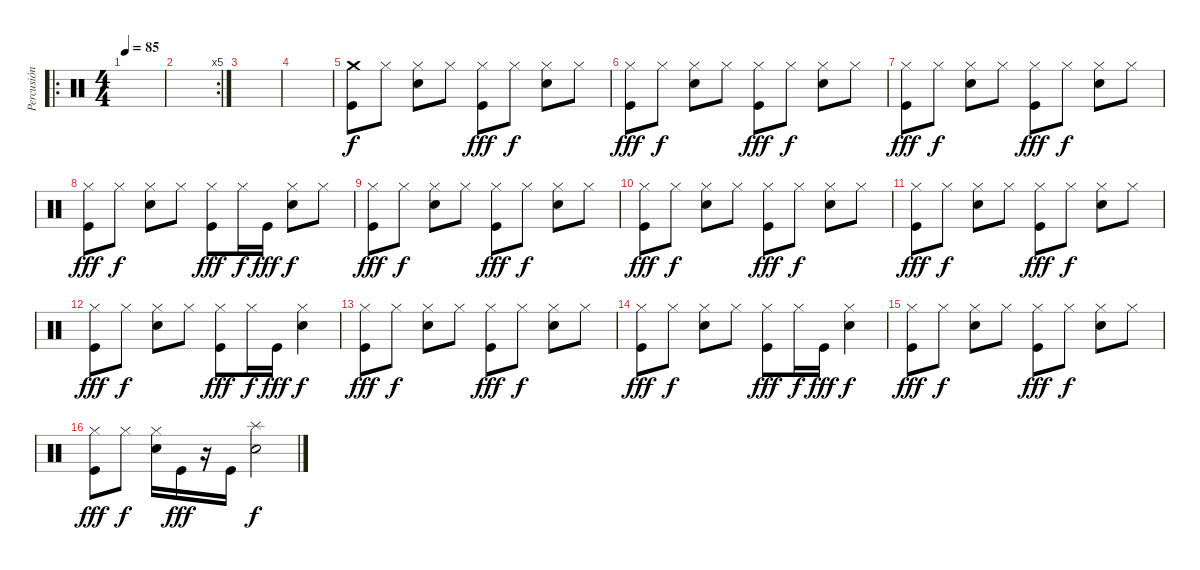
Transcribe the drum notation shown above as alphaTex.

\track ("Percusión" "Percusión") {instrument percussion}
\staff {score}
\articulation defaults
\ro
\ts (4 4)
\tempo 85
\clef neutral
\ks c
|
\rc 5
|
|
|
("Crash medium (hit)" "Kick (hit)").8 "Hi-Hat (closed)".8{dy f} ("Hi-Hat (closed)" "Electric Snare (hit)").8 "Hi-Hat (closed)".8 ("Hi-Hat (closed)" "Kick (hit)").8{dy fff} "Hi-Hat (closed)".8{dy f} ("Hi-Hat (closed)" "Electric Snare (hit)").8 "Hi-Hat (closed)".8 |
("Hi-Hat (closed)" "Kick (hit)").8{dy fff} "Hi-Hat (closed)".8{dy f} ("Hi-Hat (closed)" "Electric Snare (hit)").8 "Hi-Hat (closed)".8 ("Hi-Hat (closed)" "Kick (hit)").8{dy fff} "Hi-Hat (closed)".8{dy f} ("Hi-Hat (closed)" "Electric Snare (hit)").8 "Hi-Hat (closed)".8 |
("Hi-Hat (closed)" "Kick (hit)").8{dy fff} "Hi-Hat (closed)".8{dy f} ("Hi-Hat (closed)" "Electric Snare (hit)").8 "Hi-Hat (closed)".8 ("Hi-Hat (closed)" "Kick (hit)").8{dy fff} "Hi-Hat (closed)".8{dy f} ("Hi-Hat (closed)" "Electric Snare (hit)").8 "Hi-Hat (closed)".8 |
("Hi-Hat (closed)" "Kick (hit)").8{dy fff} "Hi-Hat (closed)".8{dy f} ("Hi-Hat (closed)" "Electric Snare (hit)").8 "Hi-Hat (closed)".8 ("Hi-Hat (closed)" "Kick (hit)").8{dy fff} "Hi-Hat (closed)".16{dy f} "Kick (hit)".16{dy fff} ("Hi-Hat (closed)" "Electric Snare (hit)").8{dy f} "Hi-Hat (closed)".8 |
("Hi-Hat (closed)" "Kick (hit)").8{dy fff} "Hi-Hat (closed)".8{dy f} ("Hi-Hat (closed)" "Electric Snare (hit)").8 "Hi-Hat (closed)".8 ("Hi-Hat (closed)" "Kick (hit)").8{dy fff} "Hi-Hat (closed)".8{dy f} ("Hi-Hat (closed)" "Electric Snare (hit)").8 "Hi-Hat (closed)".8 |
("Hi-Hat (closed)" "Kick (hit)").8{dy fff} "Hi-Hat (closed)".8{dy f} ("Hi-Hat (closed)" "Electric Snare (hit)").8 "Hi-Hat (closed)".8 ("Hi-Hat (closed)" "Kick (hit)").8{dy fff} "Hi-Hat (closed)".8{dy f} ("Hi-Hat (closed)" "Electric Snare (hit)").8 "Hi-Hat (closed)".8 |
("Hi-Hat (closed)" "Kick (hit)").8{dy fff} "Hi-Hat (closed)".8{dy f} ("Hi-Hat (closed)" "Electric Snare (hit)").8 "Hi-Hat (closed)".8 ("Hi-Hat (closed)" "Kick (hit)").8{dy fff} "Hi-Hat (closed)".8{dy f} ("Hi-Hat (closed)" "Electric Snare (hit)").8 "Hi-Hat (closed)".8 |
("Hi-Hat (closed)" "Kick (hit)").8{dy fff} "Hi-Hat (closed)".8{dy f} ("Hi-Hat (closed)" "Electric Snare (hit)").8 "Hi-Hat (closed)".8 ("Hi-Hat (closed)" "Kick (hit)").8{dy fff} "Hi-Hat (closed)".16{dy f} "Kick (hit)".16{dy fff} ("Hi-Hat (closed)" "Electric Snare (hit)").4{dy f} |
("Hi-Hat (closed)" "Kick (hit)").8{dy fff} "Hi-Hat (closed)".8{dy f} ("Hi-Hat (closed)" "Electric Snare (hit)").8 "Hi-Hat (closed)".8 ("Hi-Hat (closed)" "Kick (hit)").8{dy fff} "Hi-Hat (closed)".8{dy f} ("Hi-Hat (closed)" "Electric Snare (hit)").8 "Hi-Hat (closed)".8 |
("Hi-Hat (closed)" "Kick (hit)").8{dy fff} "Hi-Hat (closed)".8{dy f} ("Hi-Hat (closed)" "Electric Snare (hit)").8 "Hi-Hat (closed)".8 ("Hi-Hat (closed)" "Kick (hit)").8{dy fff} "Hi-Hat (closed)".16{dy f} "Kick (hit)".16{dy fff} ("Hi-Hat (closed)" "Electric Snare (hit)").4{dy f} |
("Hi-Hat (closed)" "Kick (hit)").8{dy fff} "Hi-Hat (closed)".8{dy f} ("Hi-Hat (closed)" "Electric Snare (hit)").8 "Hi-Hat (closed)".8 ("Hi-Hat (closed)" "Kick (hit)").8{dy fff} "Hi-Hat (closed)".8{dy f} ("Hi-Hat (closed)" "Electric Snare (hit)").8 "Hi-Hat (closed)".8 |
("Hi-Hat (closed)" "Kick (hit)").8{dy fff} "Hi-Hat (closed)".8{dy f} ("Hi-Hat (closed)" "Electric Snare (hit)").16 "Kick (hit)".16{dy fff} r.16 "Kick (hit)".16 ("Splash (hit)" "Electric Snare (hit)").2{dy f}
